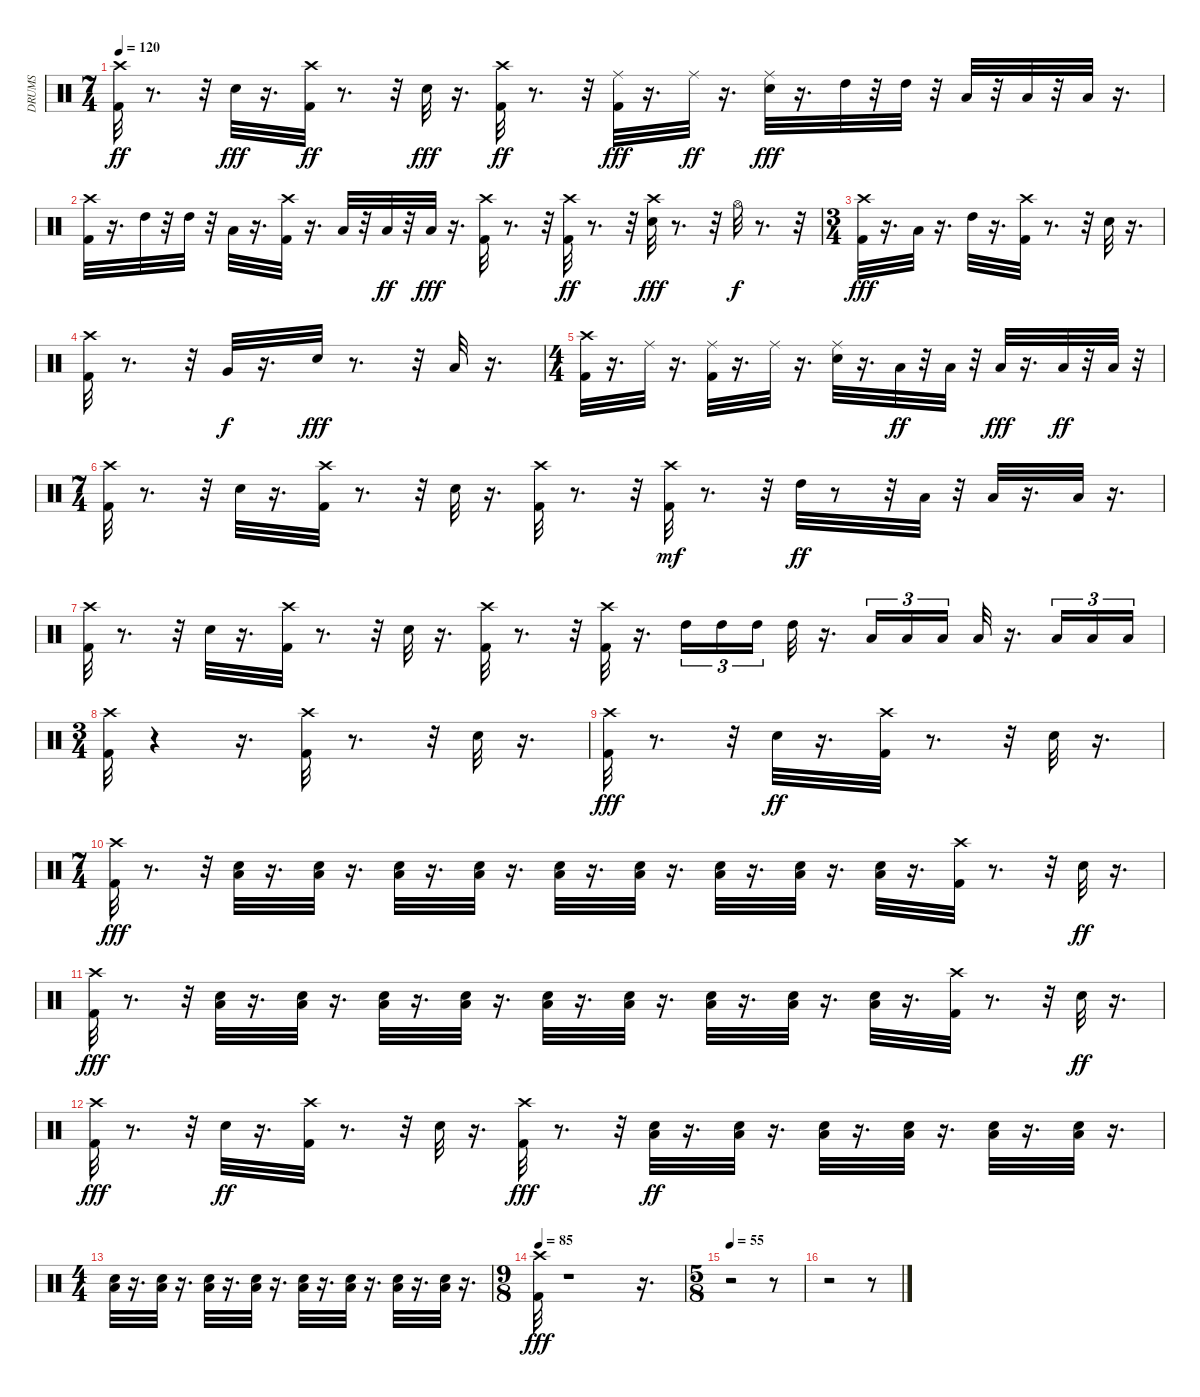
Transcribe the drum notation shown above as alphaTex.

\track ("DRUMS            " "DRUMS     ") {instrument percussion}
\staff {score}
\articulation defaults
\ts (7 4)
\tempo 120
\clef neutral
\ks c
("Kick (hit) 2" "Crash high (hit)").32{dy ff} r.8{d} r.32 "Snare (hit) 2".32{dy fff} r.16{d} ("Kick (hit) 2" "Crash high (hit)").32{dy ff} r.8{d} r.32 "Snare (hit) 2".32{dy fff} r.16{d} ("Kick (hit) 2" "Crash high (hit)").32{dy ff} r.8{d} r.32 ("Kick (hit) 2" "Ride (middle)").32{dy fff} r.16{d} "Ride (middle)".32{dy ff} r.16{d} ("Ride (middle)" "Snare (hit) 2").32{dy fff} r.16{d} "High Tom (hit)".32 r.32 "High Tom (hit)".32 r.32 "Low Tom (hit)".32 r.32 "Low Tom (hit)".32 r.32 "Low Floor Tom (hit)".32 r.16{d} |
("Kick (hit) 2" "Crash high (hit)").32 r.16{d} "High Tom (hit)".32 r.32 "High Tom (hit)".32 r.32 "Low Tom (hit)".32 r.16{d} ("Kick (hit) 2" "Crash high (hit)").32 r.16{d} "Low Floor Tom (hit)".32 r.32 "Low Floor Tom (hit)".32{dy ff} r.32 "Low Floor Tom (hit)".32{dy fff} r.16{d} ("Kick (hit) 2" "Crash high (hit)").32 r.8{d} r.32 ("Kick (hit) 2" "Crash high (hit)").32{dy ff} r.8{d} r.32 ("Snare (hit) 2" "Crash high (hit)").32{dy fff} r.8{d} r.32 "Hi-Hat (open)".32{dy f} r.8{d} r.32 |
\ts (3 4)
("Kick (hit) 2" "Crash high (hit)").32{dy fff} r.16{d} "Low Tom (hit)".32 r.16{d} "High Tom (hit)".32 r.16{d} ("Kick (hit) 2" "Crash high (hit)").32 r.8{d} r.32 "Snare (hit) 2".32 r.16{d} |
("Kick (hit) 2" "Crash high (hit)").32 r.8{d} r.32 "Very Low Tom (hit)".32{dy f} r.16{d} "Snare (hit) 2".32{dy fff} r.8{d} r.32 "Low Floor Tom (hit)".32 r.16{d} |
\ts (4 4)
("Kick (hit) 2" "Crash high (hit)").32 r.16{d} "Ride (middle)".32 r.16{d} ("Kick (hit) 2" "Ride (middle)").32 r.16{d} "Ride (middle)".32 r.16{d} ("Snare (hit) 2" "Ride (middle)").32 r.16{d} "Low Tom (hit)".32{dy ff} r.32 "Low Tom (hit)".32 r.32 "Low Tom (hit)".32{dy fff} r.16{d} "Low Tom (hit)".32{dy ff} r.32 "Low Tom (hit)".32 r.32 |
\ts (7 4)
("Kick (hit) 2" "Crash high (hit)").32 r.8{d} r.32 "Snare (hit) 2".32 r.16{d} ("Kick (hit) 2" "Crash high (hit)").32 r.8{d} r.32 "Snare (hit) 2".32 r.16{d} ("Kick (hit) 2" "Crash high (hit)").32 r.8{d} r.32 ("Kick (hit) 2" "Crash high (hit)").32{dy mf} r.8{d} r.32 "High Tom (hit)".32{dy ff} r.8 r.32 "Low Tom (hit)".32 r.32 "Low Floor Tom (hit)".32 r.16{d} "Low Floor Tom (hit)".32 r.16{d} |
("Kick (hit) 2" "Crash high (hit)").32 r.8{d} r.32 "Snare (hit) 2".32 r.16{d} ("Kick (hit) 2" "Crash high (hit)").32 r.8{d} r.32 "Snare (hit) 2".32 r.16{d} ("Kick (hit) 2" "Crash high (hit)").32 r.8{d} r.32 ("Kick (hit) 2" "Crash high (hit)").32 r.16{d} "High Tom (hit)".16{tu (3 2)} "High Tom (hit)".16{tu (3 2)} "High Tom (hit)".16{tu (3 2)} "High Tom (hit)".32 r.16{d} "Low Tom (hit)".16{tu (3 2)} "Low Tom (hit)".16{tu (3 2)} "Low Tom (hit)".16{tu (3 2)} "Low Tom (hit)".32 r.16{d} "Low Floor Tom (hit)".16{tu (3 2)} "Low Floor Tom (hit)".16{tu (3 2)} "Low Floor Tom (hit)".16{tu (3 2)} |
\ts (3 4)
("Kick (hit) 2" "Crash high (hit)").32 r.4 r.16{d} ("Kick (hit) 2" "Crash high (hit)").32 r.8{d} r.32 "Snare (hit) 2".32 r.16{d} |
("Kick (hit) 2" "Crash high (hit)").32{dy fff} r.8{d} r.32 "Snare (hit) 2".32{dy ff} r.16{d} ("Kick (hit) 2" "Crash high (hit)").32 r.8{d} r.32 "Snare (hit) 2".32 r.16{d} |
\ts (7 4)
("Kick (hit) 2" "Crash high (hit)").32{dy fff} r.8{d} r.32 ("Snare (hit) 2" "Low Floor Tom (hit)").32 r.16{d} ("Snare (hit) 2" "Low Floor Tom (hit)").32 r.16{d} ("Snare (hit) 2" "Low Floor Tom (hit)").32 r.16{d} ("Snare (hit) 2" "Low Floor Tom (hit)").32 r.16{d} ("Snare (hit) 2" "Low Floor Tom (hit)").32 r.16{d} ("Snare (hit) 2" "Low Floor Tom (hit)").32 r.16{d} ("Snare (hit) 2" "Low Floor Tom (hit)").32 r.16{d} ("Snare (hit) 2" "Low Floor Tom (hit)").32 r.16{d} ("Snare (hit) 2" "Low Floor Tom (hit)").32 r.16{d} ("Kick (hit) 2" "Crash high (hit)").32 r.8{d} r.32 "Snare (hit) 2".32{dy ff} r.16{d} |
("Kick (hit) 2" "Crash high (hit)").32{dy fff} r.8{d} r.32 ("Snare (hit) 2" "Low Floor Tom (hit)").32 r.16{d} ("Snare (hit) 2" "Low Floor Tom (hit)").32 r.16{d} ("Snare (hit) 2" "Low Floor Tom (hit)").32 r.16{d} ("Snare (hit) 2" "Low Floor Tom (hit)").32 r.16{d} ("Snare (hit) 2" "Low Floor Tom (hit)").32 r.16{d} ("Snare (hit) 2" "Low Floor Tom (hit)").32 r.16{d} ("Snare (hit) 2" "Low Floor Tom (hit)").32 r.16{d} ("Snare (hit) 2" "Low Floor Tom (hit)").32 r.16{d} ("Snare (hit) 2" "Low Floor Tom (hit)").32 r.16{d} ("Kick (hit) 2" "Crash high (hit)").32 r.8{d} r.32 "Snare (hit) 2".32{dy ff} r.16{d} |
("Kick (hit) 2" "Crash high (hit)").32{dy fff} r.8{d} r.32 "Snare (hit) 2".32{dy ff} r.16{d} ("Kick (hit) 2" "Crash high (hit)").32 r.8{d} r.32 "Snare (hit) 2".32 r.16{d} ("Kick (hit) 2" "Crash high (hit)").32{dy fff} r.8{d} r.32 ("Snare (hit) 2" "Low Floor Tom (hit)").32{dy ff} r.16{d} ("Snare (hit) 2" "Low Floor Tom (hit)").32 r.16{d} ("Snare (hit) 2" "Low Floor Tom (hit)").32 r.16{d} ("Snare (hit) 2" "Low Floor Tom (hit)").32 r.16{d} ("Snare (hit) 2" "Low Floor Tom (hit)").32 r.16{d} ("Snare (hit) 2" "Low Floor Tom (hit)").32 r.16{d} |
\ts (4 4)
("Snare (hit) 2" "Low Floor Tom (hit)").32 r.16{d} ("Snare (hit) 2" "Low Floor Tom (hit)").32 r.16{d} ("Snare (hit) 2" "Low Floor Tom (hit)").32 r.16{d} ("Snare (hit) 2" "Low Floor Tom (hit)").32 r.16{d} ("Snare (hit) 2" "Low Floor Tom (hit)").32 r.16{d} ("Snare (hit) 2" "Low Floor Tom (hit)").32 r.16{d} ("Snare (hit) 2" "Low Floor Tom (hit)").32 r.16{d} ("Snare (hit) 2" "Low Floor Tom (hit)").32 r.16{d} |
\ts (9 8)
\tempo 85
("Kick (hit) 2" "Crash high (hit)").32{dy fff} r.1 r.16{d} |
\ts (5 8)
\tempo 55
r.2 r.8 |
r.2 r.8
